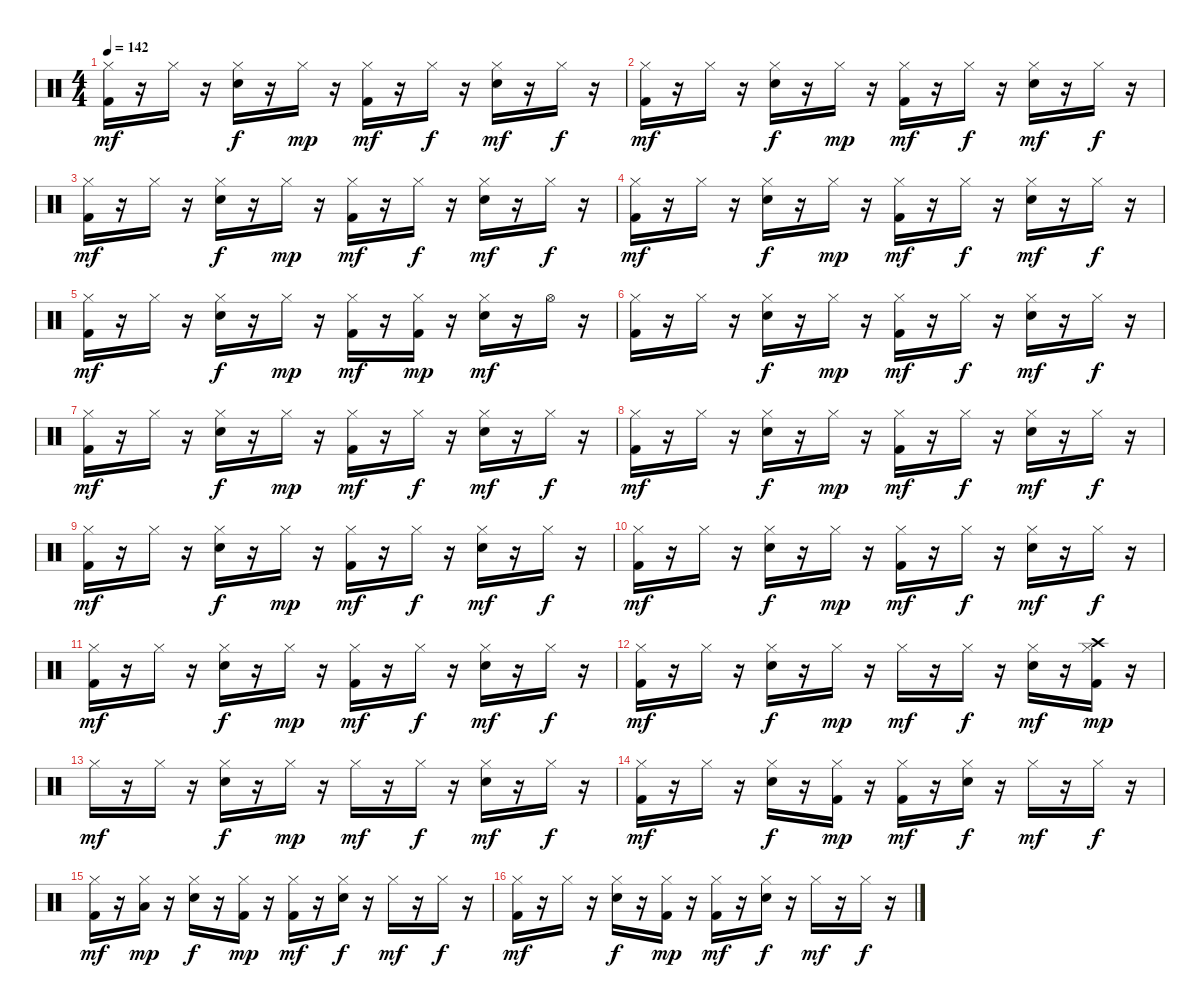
\track "" {instrument percussion}
\staff {score}
\articulation defaults
\ts (4 4)
\tempo 142
\clef neutral
\ks c
("Kick (hit) 2" "Hi-Hat (closed)").16{dy mf} r.16 "Hi-Hat (closed)".16 r.16 ("Electric Snare (hit)" "Hi-Hat (closed)").16{dy f} r.16 "Hi-Hat (closed)".16{dy mp} r.16 ("Kick (hit) 2" "Hi-Hat (closed)").16{dy mf} r.16 "Hi-Hat (closed)".16{dy f} r.16 ("Electric Snare (hit)" "Hi-Hat (closed)").16{dy mf} r.16 "Hi-Hat (closed)".16{dy f} r.16 |
("Hi-Hat (closed)" "Kick (hit) 2").16{dy mf} r.16 "Hi-Hat (closed)".16 r.16 ("Hi-Hat (closed)" "Electric Snare (hit)").16{dy f} r.16 "Hi-Hat (closed)".16{dy mp} r.16 ("Hi-Hat (closed)" "Kick (hit) 2").16{dy mf} r.16 "Hi-Hat (closed)".16{dy f} r.16 ("Hi-Hat (closed)" "Electric Snare (hit)").16{dy mf} r.16 "Hi-Hat (closed)".16{dy f} r.16 |
("Hi-Hat (closed)" "Kick (hit) 2").16{dy mf} r.16 "Hi-Hat (closed)".16 r.16 ("Hi-Hat (closed)" "Electric Snare (hit)").16{dy f} r.16 "Hi-Hat (closed)".16{dy mp} r.16 ("Hi-Hat (closed)" "Kick (hit) 2").16{dy mf} r.16 "Hi-Hat (closed)".16{dy f} r.16 ("Electric Snare (hit)" "Hi-Hat (closed)").16{dy mf} r.16 "Hi-Hat (closed)".16{dy f} r.16 |
("Kick (hit) 2" "Hi-Hat (closed)").16{dy mf} r.16 "Hi-Hat (closed)".16 r.16 ("Hi-Hat (closed)" "Electric Snare (hit)").16{dy f} r.16 "Hi-Hat (closed)".16{dy mp} r.16 ("Kick (hit) 2" "Hi-Hat (closed)").16{dy mf} r.16 "Hi-Hat (closed)".16{dy f} r.16 ("Electric Snare (hit)" "Hi-Hat (closed)").16{dy mf} r.16 "Hi-Hat (closed)".16{dy f} r.16 |
("Hi-Hat (closed)" "Kick (hit) 2").16{dy mf} r.16 "Hi-Hat (closed)".16 r.16 ("Electric Snare (hit)" "Hi-Hat (closed)").16{dy f} r.16 "Hi-Hat (closed)".16{dy mp} r.16 ("Kick (hit) 2" "Hi-Hat (closed)").16{dy mf} r.16 ("Kick (hit) 2" "Hi-Hat (closed)").16{dy mp} r.16 ("Electric Snare (hit)" "Hi-Hat (closed)").16{dy mf} r.16 "Hi-Hat (open)".16 r.16 |
("Hi-Hat (closed)" "Kick (hit) 2").16 r.16 "Hi-Hat (closed)".16 r.16 ("Electric Snare (hit)" "Hi-Hat (closed)").16{dy f} r.16 "Hi-Hat (closed)".16{dy mp} r.16 ("Hi-Hat (closed)" "Kick (hit) 2").16{dy mf} r.16 "Hi-Hat (closed)".16{dy f} r.16 ("Electric Snare (hit)" "Hi-Hat (closed)").16{dy mf} r.16 "Hi-Hat (closed)".16{dy f} r.16 |
("Hi-Hat (closed)" "Kick (hit) 2").16{dy mf} r.16 "Hi-Hat (closed)".16 r.16 ("Hi-Hat (closed)" "Electric Snare (hit)").16{dy f} r.16 "Hi-Hat (closed)".16{dy mp} r.16 ("Hi-Hat (closed)" "Kick (hit) 2").16{dy mf} r.16 "Hi-Hat (closed)".16{dy f} r.16 ("Electric Snare (hit)" "Hi-Hat (closed)").16{dy mf} r.16 "Hi-Hat (closed)".16{dy f} r.16 |
("Kick (hit) 2" "Hi-Hat (closed)").16{dy mf} r.16 "Hi-Hat (closed)".16 r.16 ("Electric Snare (hit)" "Hi-Hat (closed)").16{dy f} r.16 "Hi-Hat (closed)".16{dy mp} r.16 ("Kick (hit) 2" "Hi-Hat (closed)").16{dy mf} r.16 "Hi-Hat (closed)".16{dy f} r.16 ("Hi-Hat (closed)" "Electric Snare (hit)").16{dy mf} r.16 "Hi-Hat (closed)".16{dy f} r.16 |
("Hi-Hat (closed)" "Kick (hit) 2").16{dy mf} r.16 "Hi-Hat (closed)".16 r.16 ("Hi-Hat (closed)" "Electric Snare (hit)").16{dy f} r.16 "Hi-Hat (closed)".16{dy mp} r.16 ("Kick (hit) 2" "Hi-Hat (closed)").16{dy mf} r.16 "Hi-Hat (closed)".16{dy f} r.16 ("Hi-Hat (closed)" "Electric Snare (hit)").16{dy mf} r.16 "Hi-Hat (closed)".16{dy f} r.16 |
("Hi-Hat (closed)" "Kick (hit) 2").16{dy mf} r.16 "Hi-Hat (closed)".16 r.16 ("Hi-Hat (closed)" "Electric Snare (hit)").16{dy f} r.16 "Hi-Hat (closed)".16{dy mp} r.16 ("Hi-Hat (closed)" "Kick (hit) 2").16{dy mf} r.16 "Hi-Hat (closed)".16{dy f} r.16 ("Hi-Hat (closed)" "Electric Snare (hit)").16{dy mf} r.16 "Hi-Hat (closed)".16{dy f} r.16 |
("Hi-Hat (closed)" "Kick (hit) 2").16{dy mf} r.16 "Hi-Hat (closed)".16 r.16 ("Hi-Hat (closed)" "Electric Snare (hit)").16{dy f} r.16 "Hi-Hat (closed)".16{dy mp} r.16 ("Hi-Hat (closed)" "Kick (hit) 2").16{dy mf} r.16 "Hi-Hat (closed)".16{dy f} r.16 ("Electric Snare (hit)" "Hi-Hat (closed)").16{dy mf} r.16 "Hi-Hat (closed)".16{dy f} r.16 |
("Hi-Hat (closed)" "Kick (hit) 2").16{dy mf} r.16 "Hi-Hat (closed)".16 r.16 ("Electric Snare (hit)" "Hi-Hat (closed)").16{dy f} r.16 "Hi-Hat (closed)".16{dy mp} r.16 "Hi-Hat (closed)".16{dy mf} r.16 "Hi-Hat (closed)".16{dy f} r.16 ("Electric Snare (hit)" "Hi-Hat (closed)").16{dy mf} r.16 ("Kick (hit) 2" "Crash high (hit)" "Hi-Hat (closed)").16{dy mp} r.16 |
"Hi-Hat (closed)".16{dy mf} r.16 "Hi-Hat (closed)".16 r.16 ("Electric Snare (hit)" "Hi-Hat (closed)").16{dy f} r.16 "Hi-Hat (closed)".16{dy mp} r.16 "Hi-Hat (closed)".16{dy mf} r.16 "Hi-Hat (closed)".16{dy f} r.16 ("Electric Snare (hit)" "Hi-Hat (closed)").16{dy mf} r.16 "Hi-Hat (closed)".16{dy f} r.16 |
("Kick (hit) 2" "Hi-Hat (closed)").16{dy mf} r.16 "Hi-Hat (closed)".16 r.16 ("Electric Snare (hit)" "Hi-Hat (closed)").16{dy f} r.16 ("Hi-Hat (closed)" "Kick (hit) 2").16{dy mp} r.16 ("Hi-Hat (closed)" "Kick (hit) 2").16{dy mf} r.16 ("Electric Snare (hit)" "Hi-Hat (closed)").16{dy f} r.16 "Hi-Hat (closed)".16{dy mf} r.16 "Hi-Hat (closed)".16{dy f} r.16 |
("Kick (hit) 2" "Hi-Hat (closed)").16{dy mf} r.16 ("Hi-Hat (closed)" "Low Tom (hit)").16{dy mp} r.16 ("Electric Snare (hit)" "Hi-Hat (closed)").16{dy f} r.16 ("Hi-Hat (closed)" "Kick (hit) 2").16{dy mp} r.16 ("Kick (hit) 2" "Hi-Hat (closed)").16{dy mf} r.16 ("Electric Snare (hit)" "Hi-Hat (closed)").16{dy f} r.16 "Hi-Hat (closed)".16{dy mf} r.16 "Hi-Hat (closed)".16{dy f} r.16 |
("Kick (hit) 2" "Hi-Hat (closed)").16{dy mf} r.16 "Hi-Hat (closed)".16 r.16 ("Electric Snare (hit)" "Hi-Hat (closed)").16{dy f} r.16 ("Hi-Hat (closed)" "Kick (hit) 2").16{dy mp} r.16 ("Kick (hit) 2" "Hi-Hat (closed)").16{dy mf} r.16 ("Hi-Hat (closed)" "Electric Snare (hit)").16{dy f} r.16 "Hi-Hat (closed)".16{dy mf} r.16 "Hi-Hat (closed)".16{dy f} r.16
